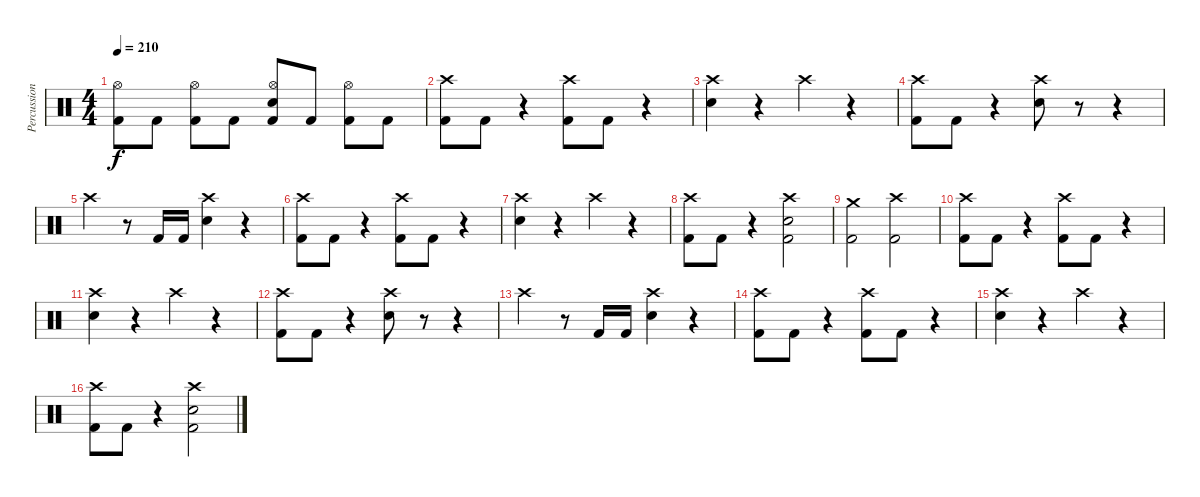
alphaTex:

\track ("Percussions" "Percussion") {instrument percussion}
\staff {score}
\articulation defaults
\ts (4 4)
\tempo 210
\clef neutral
\ks c
("Kick (hit) 2" "Hi-Hat (open)").8{dy f} "Kick (hit) 2".8 ("Kick (hit) 2" "Hi-Hat (open)").8 "Kick (hit) 2".8 ("Kick (hit) 2" "Electric Snare (hit)" "Hi-Hat (open)").8 "Kick (hit) 2".8 ("Kick (hit) 2" "Hi-Hat (open)").8 "Kick (hit) 2".8 |
("Kick (hit) 2" "Crash high (hit)").8 "Kick (hit) 2".8 r.4 ("Kick (hit) 2" "Crash high (hit)").8 "Kick (hit) 2".8 r.4 |
("Electric Snare (hit)" "Crash high (hit)").4 r.4 "Crash high (hit)".4 r.4 |
("Kick (hit) 2" "Crash high (hit)").8 "Kick (hit) 2".8 r.4 ("Electric Snare (hit)" "Crash high (hit)").8 r.8 r.4 |
"Crash high (hit)".4 r.8 "Kick (hit) 2".16 "Kick (hit) 2".16 ("Electric Snare (hit)" "Crash high (hit)").4 r.4 |
("Kick (hit) 2" "Crash high (hit)").8 "Kick (hit) 2".8 r.4 ("Kick (hit) 2" "Crash high (hit)").8 "Kick (hit) 2".8 r.4 |
("Electric Snare (hit)" "Crash high (hit)").4 r.4 "Crash high (hit)".4 r.4 |
("Kick (hit) 2" "Crash high (hit)").8 "Kick (hit) 2".8 r.4 ("Kick (hit) 2" "Electric Snare (hit)" "Crash high (hit)").2 |
("Kick (hit) 2" "Crash medium (hit)").2 ("Kick (hit) 2" "Crash high (hit)").2 |
("Kick (hit) 2" "Crash high (hit)").8 "Kick (hit) 2".8 r.4 ("Kick (hit) 2" "Crash high (hit)").8 "Kick (hit) 2".8 r.4 |
("Electric Snare (hit)" "Crash high (hit)").4 r.4 "Crash high (hit)".4 r.4 |
("Kick (hit) 2" "Crash high (hit)").8 "Kick (hit) 2".8 r.4 ("Electric Snare (hit)" "Crash high (hit)").8 r.8 r.4 |
"Crash high (hit)".4 r.8 "Kick (hit) 2".16 "Kick (hit) 2".16 ("Electric Snare (hit)" "Crash high (hit)").4 r.4 |
("Kick (hit) 2" "Crash high (hit)").8 "Kick (hit) 2".8 r.4 ("Kick (hit) 2" "Crash high (hit)").8 "Kick (hit) 2".8 r.4 |
("Electric Snare (hit)" "Crash high (hit)").4 r.4 "Crash high (hit)".4 r.4 |
("Kick (hit) 2" "Crash high (hit)").8 "Kick (hit) 2".8 r.4 ("Kick (hit) 2" "Electric Snare (hit)" "Crash high (hit)").2
